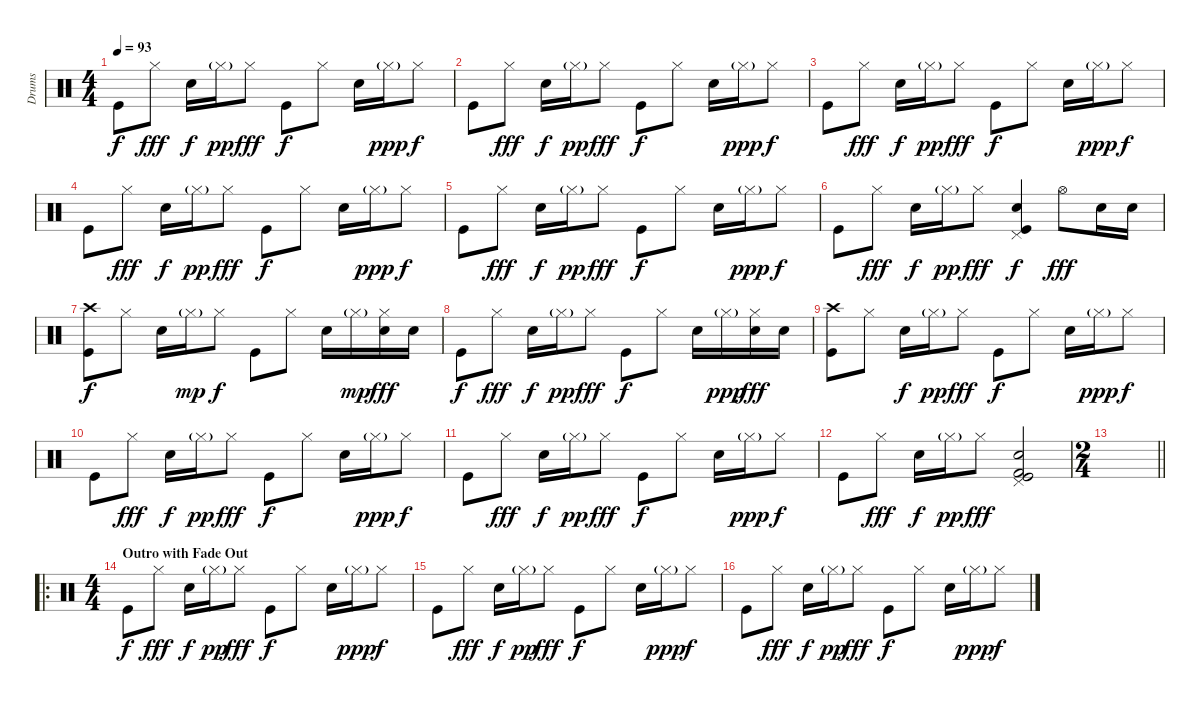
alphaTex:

\track ("Drums" "Drums") {instrument percussion}
\staff {score}
\articulation defaults
\ts (4 4)
\tempo 93
\clef neutral
\ks c "Kick (hit)".8{dy f} "Hi-Hat (closed)".8{dy fff} "Snare (hit) 2".16{dy f} "Hi-Hat (closed)"{g}.16{dy pp} "Hi-Hat (closed)".8{dy fff} "Kick (hit)".8{dy f} "Hi-Hat (closed)".8 "Snare (hit) 2".16 "Hi-Hat (closed)"{g}.16{dy ppp} "Hi-Hat (closed)".8{dy f}
|
"Kick (hit)".8 "Hi-Hat (closed)".8{dy fff} "Snare (hit) 2".16{dy f} "Hi-Hat (closed)"{g}.16{dy pp} "Hi-Hat (closed)".8{dy fff} "Kick (hit)".8{dy f} "Hi-Hat (closed)".8 "Snare (hit) 2".16 "Hi-Hat (closed)"{g}.16{dy ppp} "Hi-Hat (closed)".8{dy f} |
"Kick (hit)".8 "Hi-Hat (closed)".8{dy fff} "Snare (hit) 2".16{dy f} "Hi-Hat (closed)"{g}.16{dy pp} "Hi-Hat (closed)".8{dy fff} "Kick (hit)".8{dy f} "Hi-Hat (closed)".8 "Snare (hit) 2".16 "Hi-Hat (closed)"{g}.16{dy ppp} "Hi-Hat (closed)".8{dy f} |
"Kick (hit)".8 "Hi-Hat (closed)".8{dy fff} "Snare (hit) 2".16{dy f} "Hi-Hat (closed)"{g}.16{dy pp} "Hi-Hat (closed)".8{dy fff} "Kick (hit)".8{dy f} "Hi-Hat (closed)".8 "Snare (hit) 2".16 "Hi-Hat (closed)"{g}.16{dy ppp} "Hi-Hat (closed)".8{dy f} |
"Kick (hit)".8 "Hi-Hat (closed)".8{dy fff} "Snare (hit) 2".16{dy f} "Hi-Hat (closed)"{g}.16{dy pp} "Hi-Hat (closed)".8{dy fff} "Kick (hit)".8{dy f} "Hi-Hat (closed)".8 "Snare (hit) 2".16 "Hi-Hat (closed)"{g}.16{dy ppp} "Hi-Hat (closed)".8{dy f} |
"Kick (hit)".8 "Hi-Hat (closed)".8{dy fff} "Snare (hit) 2".16{dy f} "Hi-Hat (closed)"{g}.16{dy pp} "Hi-Hat (closed)".8{dy fff} ("Snare (hit) 2" "Pedal Hi-Hat (hit)" "Kick (hit)").4{dy f} "Hi-Hat (open)".8{dy fff} "Electric Snare (hit)".16 "Electric Snare (hit)".16 |
("Crash high (hit)" "Kick (hit)").8{dy f} "Hi-Hat (closed)".8 "Snare (hit) 2".16 "Hi-Hat (closed)"{g}.16{dy mp} "Hi-Hat (closed)".8{dy f} "Kick (hit)".8 "Hi-Hat (closed)".8 "Snare (hit) 2".16 "Hi-Hat (closed)"{g}.16{dy mp} ("Hi-Hat (closed)" "Electric Snare (hit)").16{dy fff} "Electric Snare (hit)".16 |
"Kick (hit)".8{dy f} "Hi-Hat (closed)".8{dy fff} "Snare (hit) 2".16{dy f} "Hi-Hat (closed)"{g}.16{dy pp} "Hi-Hat (closed)".8{dy fff} "Kick (hit)".8{dy f} "Hi-Hat (closed)".8 "Snare (hit) 2".16 "Hi-Hat (closed)"{g}.16{dy ppp} ("Hi-Hat (closed)" "Electric Snare (hit)").16{dy fff} "Electric Snare (hit)".16 |
("Crash high (hit)" "Kick (hit)").8 "Hi-Hat (closed)".8 "Snare (hit) 2".16{dy f} "Hi-Hat (closed)"{g}.16{dy pp} "Hi-Hat (closed)".8{dy fff} "Kick (hit)".8{dy f} "Hi-Hat (closed)".8 "Snare (hit) 2".16 "Hi-Hat (closed)"{g}.16{dy ppp} "Hi-Hat (closed)".8{dy f} |
"Kick (hit)".8 "Hi-Hat (closed)".8{dy fff} "Snare (hit) 2".16{dy f} "Hi-Hat (closed)"{g}.16{dy pp} "Hi-Hat (closed)".8{dy fff} "Kick (hit)".8{dy f} "Hi-Hat (closed)".8 "Snare (hit) 2".16 "Hi-Hat (closed)"{g}.16{dy ppp} "Hi-Hat (closed)".8{dy f} |
"Kick (hit)".8 "Hi-Hat (closed)".8{dy fff} "Snare (hit) 2".16{dy f} "Hi-Hat (closed)"{g}.16{dy pp} "Hi-Hat (closed)".8{dy fff} "Kick (hit)".8{dy f} "Hi-Hat (closed)".8 "Snare (hit) 2".16 "Hi-Hat (closed)"{g}.16{dy ppp} "Hi-Hat (closed)".8{dy f} |
"Kick (hit)".8 "Hi-Hat (closed)".8{dy fff} "Snare (hit) 2".16{dy f} "Hi-Hat (closed)"{g}.16{dy pp} "Hi-Hat (closed)".8{dy fff} ("Snare (hit) 2" "Pedal Hi-Hat (hit)" "Kick (hit) 2" "Kick (hit)").2 |
\ts (2 4)
\barLineRight lightlight
|
\ro
\ts (4 4)
\section ("" "Outro with Fade Out")
"Kick (hit)".8{dy f} "Hi-Hat (closed)".8{dy fff} "Snare (hit) 2".16{dy f} "Hi-Hat (closed)"{g}.16{dy pp} "Hi-Hat (closed)".8{dy fff} "Kick (hit)".8{dy f} "Hi-Hat (closed)".8 "Snare (hit) 2".16 "Hi-Hat (closed)"{g}.16{dy ppp} "Hi-Hat (closed)".8{dy f} |
"Kick (hit)".8 "Hi-Hat (closed)".8{dy fff} "Snare (hit) 2".16{dy f} "Hi-Hat (closed)"{g}.16{dy pp} "Hi-Hat (closed)".8{dy fff} "Kick (hit)".8{dy f} "Hi-Hat (closed)".8 "Snare (hit) 2".16 "Hi-Hat (closed)"{g}.16{dy ppp} "Hi-Hat (closed)".8{dy f} |
"Kick (hit)".8 "Hi-Hat (closed)".8{dy fff} "Snare (hit) 2".16{dy f} "Hi-Hat (closed)"{g}.16{dy pp} "Hi-Hat (closed)".8{dy fff} "Kick (hit)".8{dy f} "Hi-Hat (closed)".8 "Snare (hit) 2".16 "Hi-Hat (closed)"{g}.16{dy ppp} "Hi-Hat (closed)".8{dy f}
